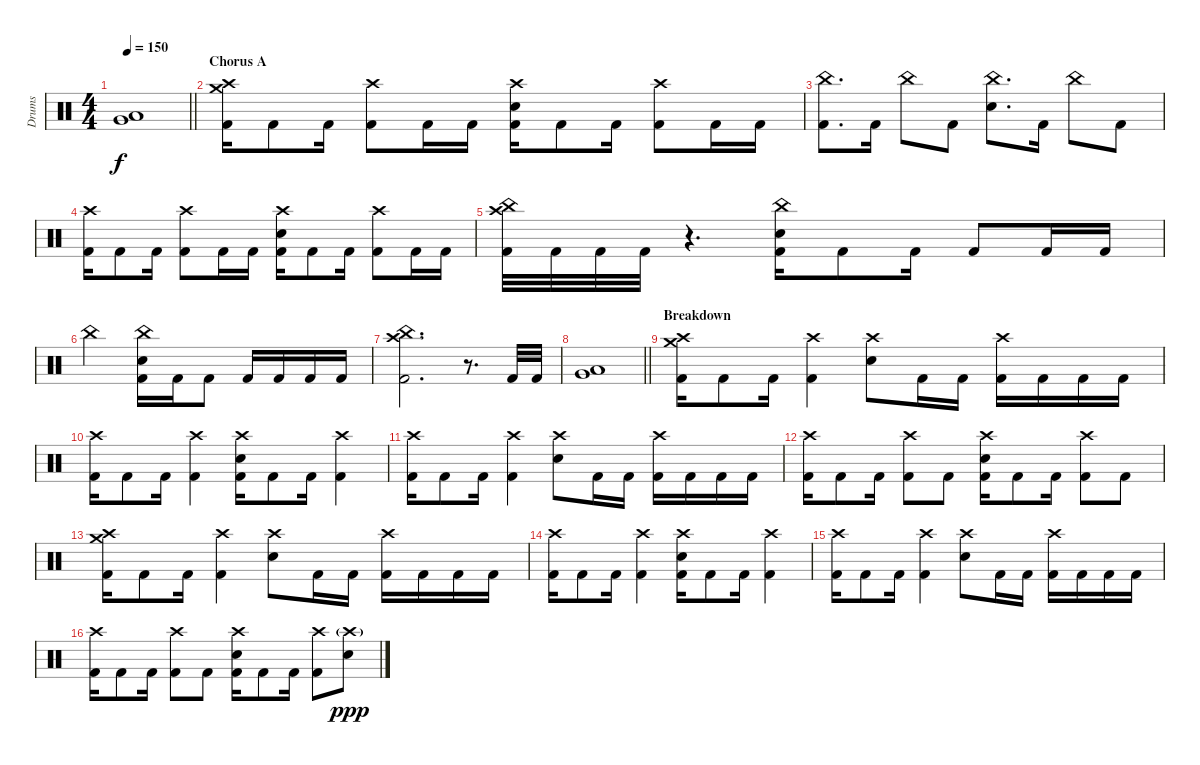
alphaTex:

\track ("Drums" "Drums") {instrument percussion}
\staff {score}
\articulation defaults
\ts (4 4)
\tempo 150
\clef neutral
\barLineRight lightlight
\ks c
("Low Tom (hit)" "Very Low Tom (hit)").1{dy f} |
\section ("" "Chorus A")
("Crash high (hit)" "Crash medium (hit)" "Kick (hit) 2").16 "Kick (hit) 2".8 "Kick (hit) 2".16 ("Crash high (hit)" "Kick (hit) 2").8 "Kick (hit) 2".16 "Kick (hit) 2".16 ("Crash high (hit)" "Snare (hit) 2" "Kick (hit) 2").16 "Kick (hit) 2".8 "Kick (hit) 2".16 ("Crash high (hit)" "Kick (hit) 2").8 "Kick (hit) 2".16 "Kick (hit) 2".16 |
("China (hit)" "Kick (hit) 2").8{d} "Kick (hit) 2".16 "China (hit)".8 "Kick (hit) 2".8 ("China (hit)" "Snare (hit) 2").8{d} "Kick (hit) 2".16 "China (hit)".8 "Kick (hit) 2".8 |
("Crash high (hit)" "Kick (hit) 2").16 "Kick (hit) 2".8 "Kick (hit) 2".16 ("Crash high (hit)" "Kick (hit) 2").8 "Kick (hit) 2".16 "Kick (hit) 2".16 ("Crash high (hit)" "Snare (hit) 2" "Kick (hit) 2").16 "Kick (hit) 2".8 "Kick (hit) 2".16 ("Crash high (hit)" "Kick (hit) 2").8 "Kick (hit) 2".16 "Kick (hit) 2".16 |
("China (hit)" "Crash high (hit)" "Kick (hit) 2").32 "Kick (hit) 2".32 "Kick (hit) 2".32 "Kick (hit) 2".32 r.4{d} ("China (hit)" "Snare (hit) 2" "Kick (hit) 2").16 "Kick (hit) 2".8 "Kick (hit) 2".16 "Kick (hit) 2".8 "Kick (hit) 2".16 "Kick (hit) 2".16 |
"China (hit)".2 ("China (hit)" "Snare (hit) 2" "Kick (hit) 2").16 "Kick (hit) 2".16 "Kick (hit) 2".8 "Kick (hit) 2".16 "Kick (hit) 2".16 "Kick (hit) 2".16 "Kick (hit) 2".16 |
("Crash high (hit)" "China (hit)" "Kick (hit) 2").2{d} r.8{d} "Kick (hit) 2".32 "Kick (hit) 2".32 |
\barLineRight lightlight
("Low Tom (hit)" "Very Low Tom (hit)").1 |
\section ("" "Breakdown")
("Crash high (hit)" "Crash medium (hit)" "Kick (hit) 2").16 "Kick (hit) 2".8 "Kick (hit) 2".16 ("Crash high (hit)" "Kick (hit) 2").4 ("Crash high (hit)" "Snare (hit) 2").8 "Kick (hit) 2".16 "Kick (hit) 2".16 ("Crash high (hit)" "Kick (hit) 2").16 "Kick (hit) 2".16 "Kick (hit) 2".16 "Kick (hit) 2".16 |
("Crash high (hit)" "Kick (hit) 2").16 "Kick (hit) 2".8 "Kick (hit) 2".16 ("Crash high (hit)" "Kick (hit) 2").4 ("Crash high (hit)" "Snare (hit) 2" "Kick (hit) 2").16 "Kick (hit) 2".8 "Kick (hit) 2".16 ("Crash high (hit)" "Kick (hit) 2").4 |
("Crash high (hit)" "Kick (hit) 2").16 "Kick (hit) 2".8 "Kick (hit) 2".16 ("Crash high (hit)" "Kick (hit) 2").4 ("Crash high (hit)" "Snare (hit) 2").8 "Kick (hit) 2".16 "Kick (hit) 2".16 ("Crash high (hit)" "Kick (hit) 2").16 "Kick (hit) 2".16 "Kick (hit) 2".16 "Kick (hit) 2".16 |
("Crash high (hit)" "Kick (hit) 2").16 "Kick (hit) 2".8 "Kick (hit) 2".16 ("Crash high (hit)" "Kick (hit) 2").8 "Kick (hit) 2".8 ("Crash high (hit)" "Snare (hit) 2" "Kick (hit) 2").16 "Kick (hit) 2".8 "Kick (hit) 2".16 ("Crash high (hit)" "Kick (hit) 2").8 "Kick (hit) 2".8 |
("Crash high (hit)" "Crash medium (hit)" "Kick (hit) 2").16 "Kick (hit) 2".8 "Kick (hit) 2".16 ("Crash high (hit)" "Kick (hit) 2").4 ("Crash high (hit)" "Snare (hit) 2").8 "Kick (hit) 2".16 "Kick (hit) 2".16 ("Crash high (hit)" "Kick (hit) 2").16 "Kick (hit) 2".16 "Kick (hit) 2".16 "Kick (hit) 2".16 |
("Crash high (hit)" "Kick (hit) 2").16 "Kick (hit) 2".8 "Kick (hit) 2".16 ("Crash high (hit)" "Kick (hit) 2").4 ("Crash high (hit)" "Snare (hit) 2" "Kick (hit) 2").16 "Kick (hit) 2".8 "Kick (hit) 2".16 ("Crash high (hit)" "Kick (hit) 2").4 |
("Crash high (hit)" "Kick (hit) 2").16 "Kick (hit) 2".8 "Kick (hit) 2".16 ("Crash high (hit)" "Kick (hit) 2").4 ("Crash high (hit)" "Snare (hit) 2").8 "Kick (hit) 2".16 "Kick (hit) 2".16 ("Crash high (hit)" "Kick (hit) 2").16 "Kick (hit) 2".16 "Kick (hit) 2".16 "Kick (hit) 2".16 |
("Crash high (hit)" "Kick (hit) 2").16 "Kick (hit) 2".8 "Kick (hit) 2".16 ("Crash high (hit)" "Kick (hit) 2").8 "Kick (hit) 2".8 ("Crash high (hit)" "Snare (hit) 2" "Kick (hit) 2").16 "Kick (hit) 2".8 "Kick (hit) 2".16 ("Crash high (hit)" "Kick (hit) 2").8 ("Crash high (hit)"{g} "Snare (hit) 2").8{dy ppp}
